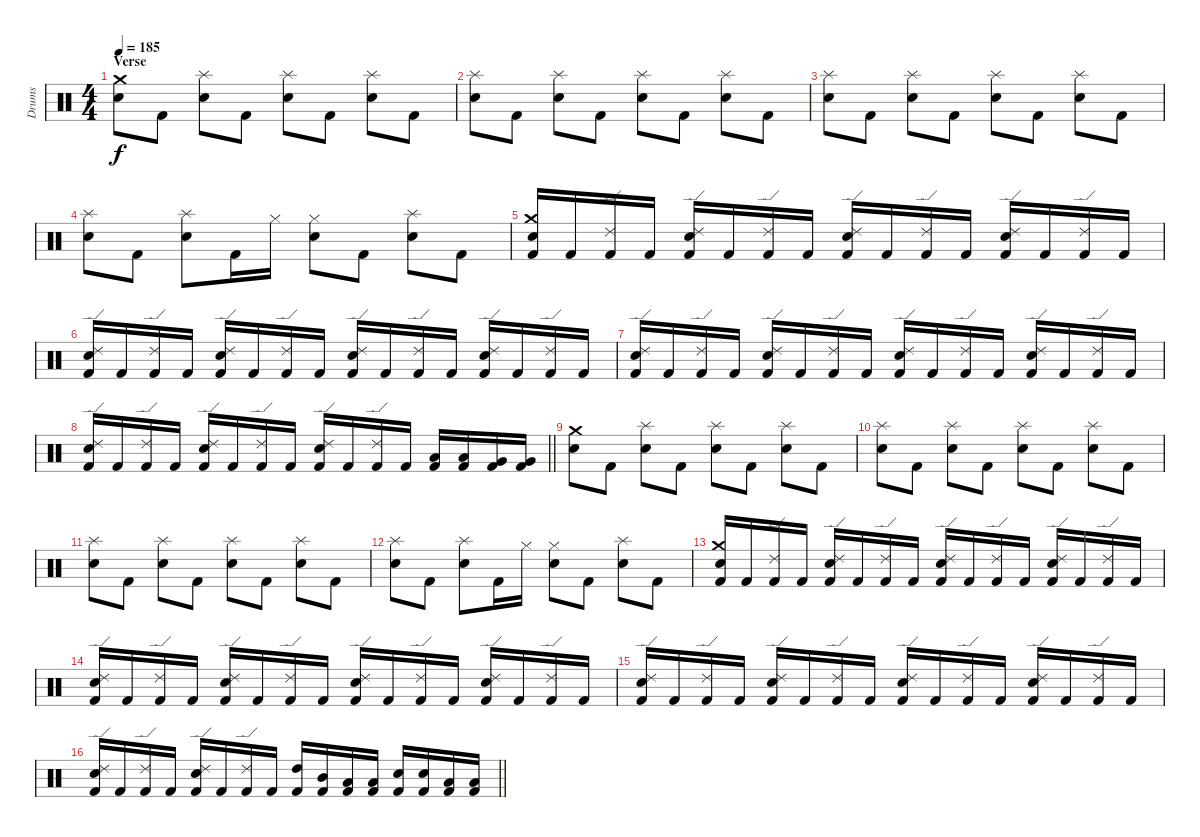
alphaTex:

\track ("Drums" "Drums") {instrument percussion}
\staff {score}
\articulation defaults
\ts (4 4)
\section ("" "Verse")
\tempo 185
\clef neutral
\ks c
("Snare (hit) 2" "Crash medium (hit)").8{dy f} "Kick (hit) 2".8 ("Snare (hit) 2" "Splash (hit)").8 "Kick (hit) 2".8 ("Snare (hit) 2" "Splash (hit)").8 "Kick (hit) 2".8 ("Snare (hit) 2" "Splash (hit)").8 "Kick (hit) 2".8 |
("Snare (hit) 2" "Splash (hit)").8 "Kick (hit) 2".8 ("Snare (hit) 2" "Splash (hit)").8 "Kick (hit) 2".8 ("Snare (hit) 2" "Splash (hit)").8 "Kick (hit) 2".8 ("Snare (hit) 2" "Splash (hit)").8 "Kick (hit) 2".8 |
("Snare (hit) 2" "Splash (hit)").8 "Kick (hit) 2".8 ("Snare (hit) 2" "Splash (hit)").8 "Kick (hit) 2".8 ("Snare (hit) 2" "Splash (hit)").8 "Kick (hit) 2".8 ("Snare (hit) 2" "Splash (hit)").8 "Kick (hit) 2".8 |
("Snare (hit) 2" "Splash (hit)").8 "Kick (hit) 2".8 ("Snare (hit) 2" "Splash (hit)").8 "Kick (hit) 2".16 "Hi-Hat (closed)".16 ("Snare (hit) 2" "Hi-Hat (closed)").8 "Kick (hit) 2".8 ("Snare (hit) 2" "Splash (hit)").8 "Kick (hit) 2".8 |
("Kick (hit) 2" "Snare (hit) 2" "Crash medium (hit)").16 "Kick (hit) 2".16 ("Kick (hit) 2" "Ride (edge) 2").16 "Kick (hit) 2".16 ("Kick (hit) 2" "Snare (hit) 2" "Ride (edge) 2").16 "Kick (hit) 2".16 ("Kick (hit) 2" "Ride (edge) 2").16 "Kick (hit) 2".16 ("Kick (hit) 2" "Snare (hit) 2" "Ride (edge) 2").16 "Kick (hit) 2".16 ("Kick (hit) 2" "Ride (edge) 2").16 "Kick (hit) 2".16 ("Kick (hit) 2" "Snare (hit) 2" "Ride (edge) 2").16 "Kick (hit) 2".16 ("Kick (hit) 2" "Ride (edge) 2").16 "Kick (hit) 2".16 |
("Kick (hit) 2" "Snare (hit) 2" "Ride (edge) 2").16 "Kick (hit) 2".16 ("Kick (hit) 2" "Ride (edge) 2").16 "Kick (hit) 2".16 ("Kick (hit) 2" "Snare (hit) 2" "Ride (edge) 2").16 "Kick (hit) 2".16 ("Kick (hit) 2" "Ride (edge) 2").16 "Kick (hit) 2".16 ("Kick (hit) 2" "Snare (hit) 2" "Ride (edge) 2").16 "Kick (hit) 2".16 ("Kick (hit) 2" "Ride (edge) 2").16 "Kick (hit) 2".16 ("Kick (hit) 2" "Snare (hit) 2" "Ride (edge) 2").16 "Kick (hit) 2".16 ("Kick (hit) 2" "Ride (edge) 2").16 "Kick (hit) 2".16 |
("Kick (hit) 2" "Snare (hit) 2" "Ride (edge) 2").16 "Kick (hit) 2".16 ("Kick (hit) 2" "Ride (edge) 2").16 "Kick (hit) 2".16 ("Kick (hit) 2" "Snare (hit) 2" "Ride (edge) 2").16 "Kick (hit) 2".16 ("Kick (hit) 2" "Ride (edge) 2").16 "Kick (hit) 2".16 ("Kick (hit) 2" "Snare (hit) 2" "Ride (edge) 2").16 "Kick (hit) 2".16 ("Kick (hit) 2" "Ride (edge) 2").16 "Kick (hit) 2".16 ("Kick (hit) 2" "Snare (hit) 2" "Ride (edge) 2").16 "Kick (hit) 2".16 ("Kick (hit) 2" "Ride (edge) 2").16 "Kick (hit) 2".16 |
\barLineRight lightlight
("Kick (hit) 2" "Snare (hit) 2" "Ride (edge) 2").16 "Kick (hit) 2".16 ("Kick (hit) 2" "Ride (edge) 2").16 "Kick (hit) 2".16 ("Kick (hit) 2" "Snare (hit) 2" "Ride (edge) 2").16 "Kick (hit) 2".16 ("Kick (hit) 2" "Ride (edge) 2").16 "Kick (hit) 2".16 ("Kick (hit) 2" "Snare (hit) 2" "Ride (edge) 2").16 "Kick (hit) 2".16 ("Kick (hit) 2" "Ride (edge) 2").16 "Kick (hit) 2".16 ("Kick (hit) 2" "Low Tom (hit)").16 ("Kick (hit) 2" "Low Tom (hit)").16 ("Kick (hit) 2" "Very Low Tom (hit)").16 ("Kick (hit) 2" "Very Low Tom (hit)").16 |
\section ("" "")
("Snare (hit) 2" "Crash medium (hit)").8 "Kick (hit) 2".8 ("Snare (hit) 2" "Splash (hit)").8 "Kick (hit) 2".8 ("Snare (hit) 2" "Splash (hit)").8 "Kick (hit) 2".8 ("Snare (hit) 2" "Splash (hit)").8 "Kick (hit) 2".8 |
("Snare (hit) 2" "Splash (hit)").8 "Kick (hit) 2".8 ("Snare (hit) 2" "Splash (hit)").8 "Kick (hit) 2".8 ("Snare (hit) 2" "Splash (hit)").8 "Kick (hit) 2".8 ("Snare (hit) 2" "Splash (hit)").8 "Kick (hit) 2".8 |
("Snare (hit) 2" "Splash (hit)").8 "Kick (hit) 2".8 ("Snare (hit) 2" "Splash (hit)").8 "Kick (hit) 2".8 ("Snare (hit) 2" "Splash (hit)").8 "Kick (hit) 2".8 ("Snare (hit) 2" "Splash (hit)").8 "Kick (hit) 2".8 |
("Snare (hit) 2" "Splash (hit)").8 "Kick (hit) 2".8 ("Snare (hit) 2" "Splash (hit)").8 "Kick (hit) 2".16 "Hi-Hat (closed)".16 ("Snare (hit) 2" "Hi-Hat (closed)").8 "Kick (hit) 2".8 ("Snare (hit) 2" "Splash (hit)").8 "Kick (hit) 2".8 |
("Kick (hit) 2" "Snare (hit) 2" "Crash medium (hit)").16 "Kick (hit) 2".16 ("Kick (hit) 2" "Ride (edge) 2").16 "Kick (hit) 2".16 ("Kick (hit) 2" "Snare (hit) 2" "Ride (edge) 2").16 "Kick (hit) 2".16 ("Kick (hit) 2" "Ride (edge) 2").16 "Kick (hit) 2".16 ("Kick (hit) 2" "Snare (hit) 2" "Ride (edge) 2").16 "Kick (hit) 2".16 ("Kick (hit) 2" "Ride (edge) 2").16 "Kick (hit) 2".16 ("Kick (hit) 2" "Snare (hit) 2" "Ride (edge) 2").16 "Kick (hit) 2".16 ("Kick (hit) 2" "Ride (edge) 2").16 "Kick (hit) 2".16 |
("Kick (hit) 2" "Snare (hit) 2" "Ride (edge) 2").16 "Kick (hit) 2".16 ("Kick (hit) 2" "Ride (edge) 2").16 "Kick (hit) 2".16 ("Kick (hit) 2" "Snare (hit) 2" "Ride (edge) 2").16 "Kick (hit) 2".16 ("Kick (hit) 2" "Ride (edge) 2").16 "Kick (hit) 2".16 ("Kick (hit) 2" "Snare (hit) 2" "Ride (edge) 2").16 "Kick (hit) 2".16 ("Kick (hit) 2" "Ride (edge) 2").16 "Kick (hit) 2".16 ("Kick (hit) 2" "Snare (hit) 2" "Ride (edge) 2").16 "Kick (hit) 2".16 ("Kick (hit) 2" "Ride (edge) 2").16 "Kick (hit) 2".16 |
("Kick (hit) 2" "Snare (hit) 2" "Ride (edge) 2").16 "Kick (hit) 2".16 ("Kick (hit) 2" "Ride (edge) 2").16 "Kick (hit) 2".16 ("Kick (hit) 2" "Snare (hit) 2" "Ride (edge) 2").16 "Kick (hit) 2".16 ("Kick (hit) 2" "Ride (edge) 2").16 "Kick (hit) 2".16 ("Kick (hit) 2" "Snare (hit) 2" "Ride (edge) 2").16 "Kick (hit) 2".16 ("Kick (hit) 2" "Ride (edge) 2").16 "Kick (hit) 2".16 ("Kick (hit) 2" "Snare (hit) 2" "Ride (edge) 2").16 "Kick (hit) 2".16 ("Kick (hit) 2" "Ride (edge) 2").16 "Kick (hit) 2".16 |
\barLineRight lightlight
("Kick (hit) 2" "Snare (hit) 2" "Ride (edge) 2").16 "Kick (hit) 2".16 ("Kick (hit) 2" "Ride (edge) 2").16 "Kick (hit) 2".16 ("Kick (hit) 2" "Snare (hit) 2" "Ride (edge) 2").16 "Kick (hit) 2".16 ("Kick (hit) 2" "Ride (edge) 2").16 "Kick (hit) 2".16 ("Kick (hit) 2" "High Tom (hit)").16 ("Kick (hit) 2" "Mid Tom (hit)").16 ("Kick (hit) 2" "Low Tom (hit)").16 ("Kick (hit) 2" "Low Tom (hit)").16 ("Kick (hit) 2" "Snare (hit) 2").16 ("Kick (hit) 2" "Snare (hit) 2").16 ("Kick (hit) 2" "Low Tom (hit)").16 ("Kick (hit) 2" "Low Tom (hit)").16
